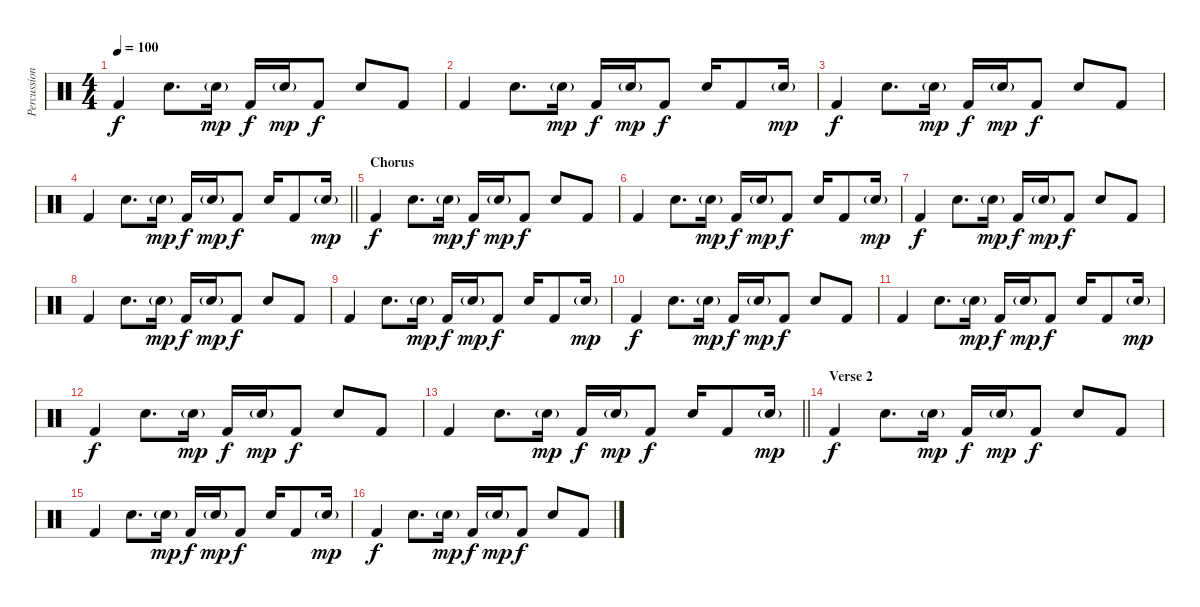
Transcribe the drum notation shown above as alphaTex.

\track ("Percussion" "Percussion") {instrument percussion}
\staff {score}
\articulation defaults
\ts (4 4)
\tempo 100
\clef neutral
\ks c "Kick (hit) 2".4{dy f} "Snare (hit) 2".8{d} "Snare (hit) 2"{g}.16{dy mp} "Kick (hit) 2".16{dy f} "Snare (hit) 2"{g}.16{dy mp} "Kick (hit) 2".8{dy f} "Snare (hit) 2".8 "Kick (hit) 2".8
|
"Kick (hit) 2".4 "Snare (hit) 2".8{d} "Snare (hit) 2"{g}.16{dy mp} "Kick (hit) 2".16{dy f} "Snare (hit) 2"{g}.16{dy mp} "Kick (hit) 2".8{dy f} "Snare (hit) 2".16 "Kick (hit) 2".8 "Snare (hit) 2"{g}.16{dy mp} |
"Kick (hit) 2".4{dy f} "Snare (hit) 2".8{d} "Snare (hit) 2"{g}.16{dy mp} "Kick (hit) 2".16{dy f} "Snare (hit) 2"{g}.16{dy mp} "Kick (hit) 2".8{dy f} "Snare (hit) 2".8 "Kick (hit) 2".8 |
\barLineRight lightlight "Kick (hit) 2".4 "Snare (hit) 2".8{d} "Snare (hit) 2"{g}.16{dy mp} "Kick (hit) 2".16{dy f} "Snare (hit) 2"{g}.16{dy mp} "Kick (hit) 2".8{dy f} "Snare (hit) 2".16 "Kick (hit) 2".8 "Snare (hit) 2"{g}.16{dy mp}
|
\section ("" "Chorus")
"Kick (hit) 2".4{dy f} "Snare (hit) 2".8{d} "Snare (hit) 2"{g}.16{dy mp} "Kick (hit) 2".16{dy f} "Snare (hit) 2"{g}.16{dy mp} "Kick (hit) 2".8{dy f} "Snare (hit) 2".8 "Kick (hit) 2".8 |
"Kick (hit) 2".4 "Snare (hit) 2".8{d} "Snare (hit) 2"{g}.16{dy mp} "Kick (hit) 2".16{dy f} "Snare (hit) 2"{g}.16{dy mp} "Kick (hit) 2".8{dy f} "Snare (hit) 2".16 "Kick (hit) 2".8 "Snare (hit) 2"{g}.16{dy mp} |
"Kick (hit) 2".4{dy f} "Snare (hit) 2".8{d} "Snare (hit) 2"{g}.16{dy mp} "Kick (hit) 2".16{dy f} "Snare (hit) 2"{g}.16{dy mp} "Kick (hit) 2".8{dy f} "Snare (hit) 2".8 "Kick (hit) 2".8 |
"Kick (hit) 2".4 "Snare (hit) 2".8{d} "Snare (hit) 2"{g}.16{dy mp} "Kick (hit) 2".16{dy f} "Snare (hit) 2"{g}.16{dy mp} "Kick (hit) 2".8{dy f} "Snare (hit) 2".8 "Kick (hit) 2".8 |
"Kick (hit) 2".4 "Snare (hit) 2".8{d} "Snare (hit) 2"{g}.16{dy mp} "Kick (hit) 2".16{dy f} "Snare (hit) 2"{g}.16{dy mp} "Kick (hit) 2".8{dy f} "Snare (hit) 2".16 "Kick (hit) 2".8 "Snare (hit) 2"{g}.16{dy mp} |
"Kick (hit) 2".4{dy f} "Snare (hit) 2".8{d} "Snare (hit) 2"{g}.16{dy mp} "Kick (hit) 2".16{dy f} "Snare (hit) 2"{g}.16{dy mp} "Kick (hit) 2".8{dy f} "Snare (hit) 2".8 "Kick (hit) 2".8 |
"Kick (hit) 2".4 "Snare (hit) 2".8{d} "Snare (hit) 2"{g}.16{dy mp} "Kick (hit) 2".16{dy f} "Snare (hit) 2"{g}.16{dy mp} "Kick (hit) 2".8{dy f} "Snare (hit) 2".16 "Kick (hit) 2".8 "Snare (hit) 2"{g}.16{dy mp} |
"Kick (hit) 2".4{dy f} "Snare (hit) 2".8{d} "Snare (hit) 2"{g}.16{dy mp} "Kick (hit) 2".16{dy f} "Snare (hit) 2"{g}.16{dy mp} "Kick (hit) 2".8{dy f} "Snare (hit) 2".8 "Kick (hit) 2".8 |
\barLineRight lightlight "Kick (hit) 2".4 "Snare (hit) 2".8{d} "Snare (hit) 2"{g}.16{dy mp} "Kick (hit) 2".16{dy f} "Snare (hit) 2"{g}.16{dy mp} "Kick (hit) 2".8{dy f} "Snare (hit) 2".16 "Kick (hit) 2".8 "Snare (hit) 2"{g}.16{dy mp}
|
\section ("" "Verse 2")
"Kick (hit) 2".4{dy f} "Snare (hit) 2".8{d} "Snare (hit) 2"{g}.16{dy mp} "Kick (hit) 2".16{dy f} "Snare (hit) 2"{g}.16{dy mp} "Kick (hit) 2".8{dy f} "Snare (hit) 2".8 "Kick (hit) 2".8 |
"Kick (hit) 2".4 "Snare (hit) 2".8{d} "Snare (hit) 2"{g}.16{dy mp} "Kick (hit) 2".16{dy f} "Snare (hit) 2"{g}.16{dy mp} "Kick (hit) 2".8{dy f} "Snare (hit) 2".16 "Kick (hit) 2".8 "Snare (hit) 2"{g}.16{dy mp} |
"Kick (hit) 2".4{dy f} "Snare (hit) 2".8{d} "Snare (hit) 2"{g}.16{dy mp} "Kick (hit) 2".16{dy f} "Snare (hit) 2"{g}.16{dy mp} "Kick (hit) 2".8{dy f} "Snare (hit) 2".8 "Kick (hit) 2".8
